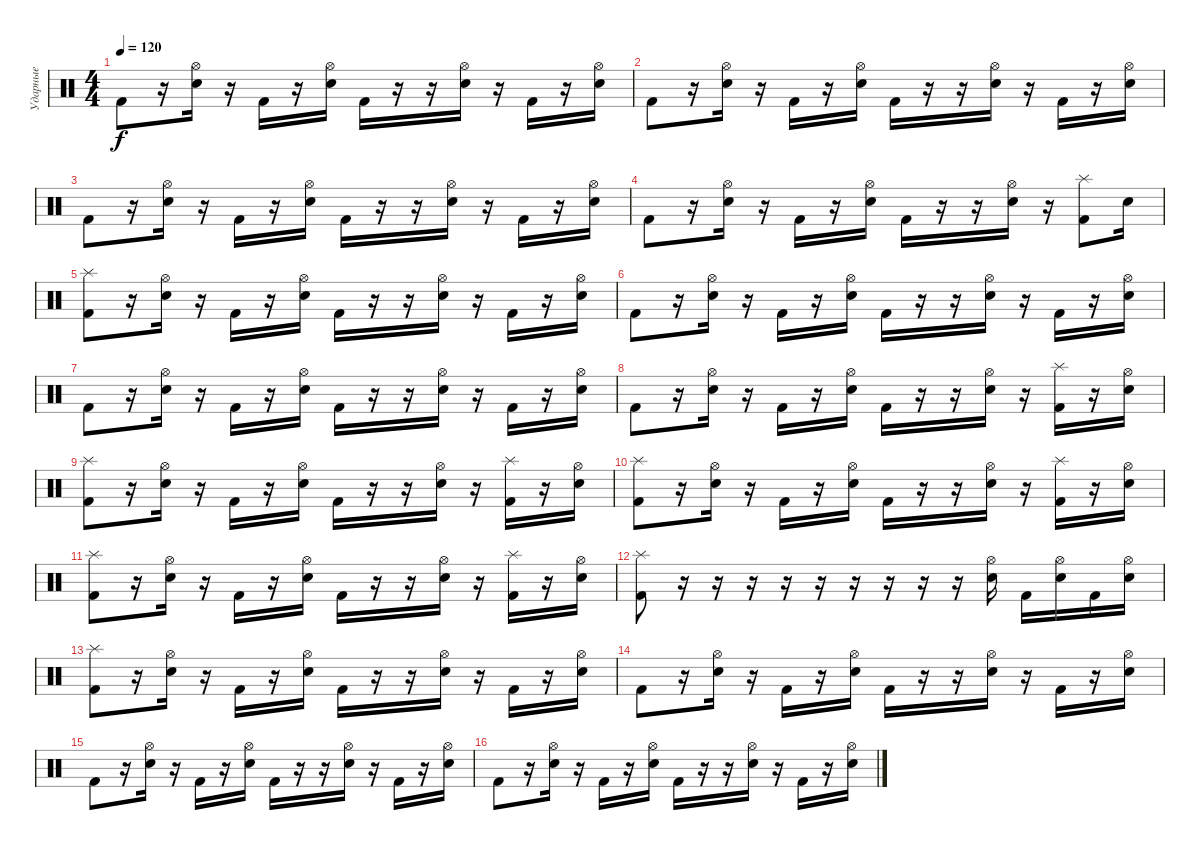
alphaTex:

\track ("Ударные" "Ударные") {instrument percussion}
\staff {score}
\articulation defaults
\ts (4 4)
\tempo 120
\clef neutral
\ks c "Kick (hit) 2".8{dy f}
r.16 ("Hi-Hat (open)" "Electric Snare (hit)").16 r.16 "Kick (hit) 2".16 r.16 ("Hi-Hat (open)" "Electric Snare (hit)").16 "Kick (hit) 2".16 r.16 r.16 ("Hi-Hat (open)" "Electric Snare (hit)").16 r.16 "Kick (hit) 2".16 r.16 ("Hi-Hat (open)" "Electric Snare (hit)").16 |
"Kick (hit) 2".8 r.16 ("Hi-Hat (open)" "Electric Snare (hit)").16 r.16 "Kick (hit) 2".16 r.16 ("Hi-Hat (open)" "Electric Snare (hit)").16 "Kick (hit) 2".16 r.16 r.16 ("Hi-Hat (open)" "Electric Snare (hit)").16 r.16 "Kick (hit) 2".16 r.16 ("Hi-Hat (open)" "Electric Snare (hit)").16 |
"Kick (hit) 2".8 r.16 ("Hi-Hat (open)" "Electric Snare (hit)").16 r.16 "Kick (hit) 2".16 r.16 ("Hi-Hat (open)" "Electric Snare (hit)").16 "Kick (hit) 2".16 r.16 r.16 ("Hi-Hat (open)" "Electric Snare (hit)").16 r.16 "Kick (hit) 2".16 r.16 ("Hi-Hat (open)" "Electric Snare (hit)").16 |
"Kick (hit) 2".8 r.16 ("Hi-Hat (open)" "Electric Snare (hit)").16 r.16 "Kick (hit) 2".16 r.16 ("Hi-Hat (open)" "Electric Snare (hit)").16 "Kick (hit) 2".16 r.16 r.16 ("Hi-Hat (open)" "Electric Snare (hit)").16 r.16 ("Splash (hit)" "Kick (hit) 2").8 "Snare (hit) 2".16 |
("Splash (hit)" "Kick (hit) 2").8 r.16 ("Hi-Hat (open)" "Electric Snare (hit)").16 r.16 "Kick (hit) 2".16 r.16 ("Hi-Hat (open)" "Electric Snare (hit)").16 "Kick (hit) 2".16 r.16 r.16 ("Hi-Hat (open)" "Electric Snare (hit)").16 r.16 "Kick (hit) 2".16 r.16 ("Hi-Hat (open)" "Electric Snare (hit)").16 |
"Kick (hit) 2".8 r.16 ("Hi-Hat (open)" "Electric Snare (hit)").16 r.16 "Kick (hit) 2".16 r.16 ("Hi-Hat (open)" "Electric Snare (hit)").16 "Kick (hit) 2".16 r.16 r.16 ("Hi-Hat (open)" "Electric Snare (hit)").16 r.16 "Kick (hit) 2".16 r.16 ("Hi-Hat (open)" "Electric Snare (hit)").16 |
"Kick (hit) 2".8 r.16 ("Hi-Hat (open)" "Electric Snare (hit)").16 r.16 "Kick (hit) 2".16 r.16 ("Hi-Hat (open)" "Electric Snare (hit)").16 "Kick (hit) 2".16 r.16 r.16 ("Hi-Hat (open)" "Electric Snare (hit)").16 r.16 "Kick (hit) 2".16 r.16 ("Hi-Hat (open)" "Electric Snare (hit)").16 |
"Kick (hit) 2".8 r.16 ("Hi-Hat (open)" "Electric Snare (hit)").16 r.16 "Kick (hit) 2".16 r.16 ("Hi-Hat (open)" "Electric Snare (hit)").16 "Kick (hit) 2".16 r.16 r.16 ("Hi-Hat (open)" "Electric Snare (hit)").16 r.16 ("Splash (hit)" "Kick (hit) 2").16 r.16 ("Hi-Hat (open)" "Electric Snare (hit)").16 |
("Splash (hit)" "Kick (hit) 2").8 r.16 ("Hi-Hat (open)" "Electric Snare (hit)").16 r.16 "Kick (hit) 2".16 r.16 ("Hi-Hat (open)" "Electric Snare (hit)").16 "Kick (hit) 2".16 r.16 r.16 ("Hi-Hat (open)" "Electric Snare (hit)").16 r.16 ("Splash (hit)" "Kick (hit) 2").16 r.16 ("Hi-Hat (open)" "Electric Snare (hit)").16 |
("Splash (hit)" "Kick (hit) 2").8 r.16 ("Hi-Hat (open)" "Electric Snare (hit)").16 r.16 "Kick (hit) 2".16 r.16 ("Hi-Hat (open)" "Electric Snare (hit)").16 "Kick (hit) 2".16 r.16 r.16 ("Hi-Hat (open)" "Electric Snare (hit)").16 r.16 ("Splash (hit)" "Kick (hit) 2").16 r.16 ("Hi-Hat (open)" "Electric Snare (hit)").16 |
("Splash (hit)" "Kick (hit) 2").8 r.16 ("Hi-Hat (open)" "Electric Snare (hit)").16 r.16 "Kick (hit) 2".16 r.16 ("Hi-Hat (open)" "Electric Snare (hit)").16 "Kick (hit) 2".16 r.16 r.16 ("Hi-Hat (open)" "Electric Snare (hit)").16 r.16 ("Splash (hit)" "Kick (hit) 2").16 r.16 ("Hi-Hat (open)" "Electric Snare (hit)").16 |
("Splash (hit)" "Kick (hit) 2").8 r.16 r.16 r.16 r.16 r.16 r.16 r.16 r.16 r.16 ("Hi-Hat (open)" "Electric Snare (hit)").16 "Kick (hit) 2".16 ("Hi-Hat (open)" "Electric Snare (hit)").16 "Kick (hit) 2".16 ("Hi-Hat (open)" "Electric Snare (hit)").16 |
("Splash (hit)" "Kick (hit) 2").8 r.16 ("Hi-Hat (open)" "Electric Snare (hit)").16 r.16 "Kick (hit) 2".16 r.16 ("Hi-Hat (open)" "Electric Snare (hit)").16 "Kick (hit) 2".16 r.16 r.16 ("Hi-Hat (open)" "Electric Snare (hit)").16 r.16 "Kick (hit) 2".16 r.16 ("Hi-Hat (open)" "Electric Snare (hit)").16 |
"Kick (hit) 2".8 r.16 ("Hi-Hat (open)" "Electric Snare (hit)").16 r.16 "Kick (hit) 2".16 r.16 ("Hi-Hat (open)" "Electric Snare (hit)").16 "Kick (hit) 2".16 r.16 r.16 ("Hi-Hat (open)" "Electric Snare (hit)").16 r.16 "Kick (hit) 2".16 r.16 ("Hi-Hat (open)" "Electric Snare (hit)").16 |
"Kick (hit) 2".8 r.16 ("Hi-Hat (open)" "Electric Snare (hit)").16 r.16 "Kick (hit) 2".16 r.16 ("Hi-Hat (open)" "Electric Snare (hit)").16 "Kick (hit) 2".16 r.16 r.16 ("Hi-Hat (open)" "Electric Snare (hit)").16 r.16 "Kick (hit) 2".16 r.16 ("Hi-Hat (open)" "Electric Snare (hit)").16 |
"Kick (hit) 2".8 r.16 ("Hi-Hat (open)" "Electric Snare (hit)").16 r.16 "Kick (hit) 2".16 r.16 ("Hi-Hat (open)" "Electric Snare (hit)").16 "Kick (hit) 2".16 r.16 r.16 ("Hi-Hat (open)" "Electric Snare (hit)").16 r.16 "Kick (hit) 2".16 r.16 ("Hi-Hat (open)" "Electric Snare (hit)").16
